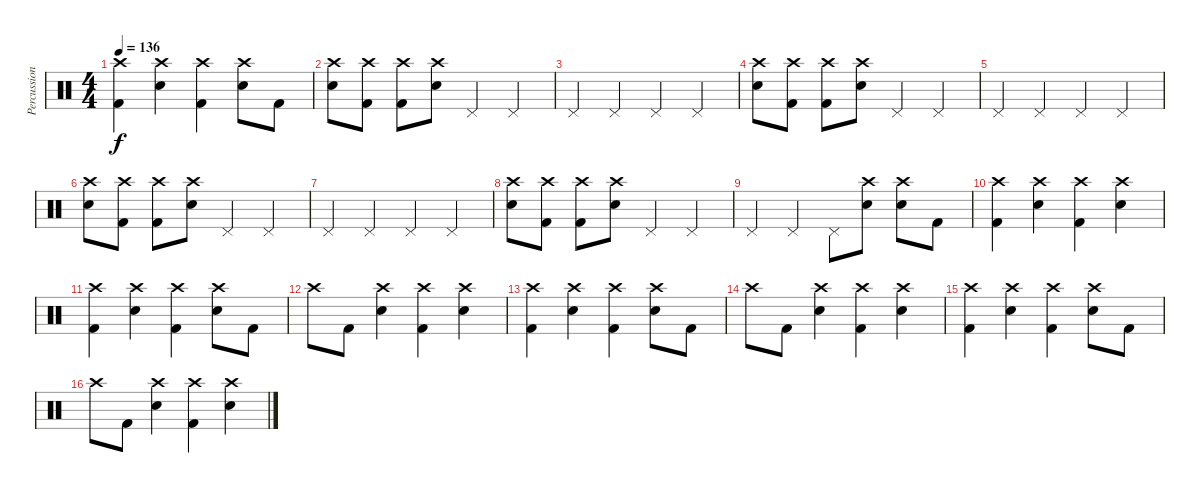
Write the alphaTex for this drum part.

\track ("Percussion" "Percussion") {instrument percussion}
\staff {score}
\articulation defaults
\ts (4 4)
\tempo 136
\clef neutral
\ks c
("Kick (hit) 2" "Crash high (hit)").4{dy f} ("Snare (hit) 2" "Crash high (hit)").4 ("Kick (hit) 2" "Crash high (hit)").4 ("Snare (hit) 2" "Crash high (hit)").8 "Kick (hit) 2".8 |
("Snare (hit) 2" "Crash high (hit)").8 ("Kick (hit) 2" "Crash high (hit)").8 ("Kick (hit) 2" "Crash high (hit)").8 ("Snare (hit) 2" "Crash high (hit)").8 "Pedal Hi-Hat (hit)".4 "Pedal Hi-Hat (hit)".4 |
"Pedal Hi-Hat (hit)".4 "Pedal Hi-Hat (hit)".4 "Pedal Hi-Hat (hit)".4 "Pedal Hi-Hat (hit)".4 |
("Snare (hit) 2" "Crash high (hit)").8 ("Kick (hit) 2" "Crash high (hit)").8 ("Kick (hit) 2" "Crash high (hit)").8 ("Snare (hit) 2" "Crash high (hit)").8 "Pedal Hi-Hat (hit)".4 "Pedal Hi-Hat (hit)".4 |
"Pedal Hi-Hat (hit)".4 "Pedal Hi-Hat (hit)".4 "Pedal Hi-Hat (hit)".4 "Pedal Hi-Hat (hit)".4 |
("Snare (hit) 2" "Crash high (hit)").8 ("Kick (hit) 2" "Crash high (hit)").8 ("Kick (hit) 2" "Crash high (hit)").8 ("Snare (hit) 2" "Crash high (hit)").8 "Pedal Hi-Hat (hit)".4 "Pedal Hi-Hat (hit)".4 |
"Pedal Hi-Hat (hit)".4 "Pedal Hi-Hat (hit)".4 "Pedal Hi-Hat (hit)".4 "Pedal Hi-Hat (hit)".4 |
("Snare (hit) 2" "Crash high (hit)").8 ("Kick (hit) 2" "Crash high (hit)").8 ("Kick (hit) 2" "Crash high (hit)").8 ("Snare (hit) 2" "Crash high (hit)").8 "Pedal Hi-Hat (hit)".4 "Pedal Hi-Hat (hit)".4 |
"Pedal Hi-Hat (hit)".4 "Pedal Hi-Hat (hit)".4 "Pedal Hi-Hat (hit)".8 ("Snare (hit) 2" "Crash high (hit)").8 ("Snare (hit) 2" "Crash high (hit)").8 "Kick (hit) 2".8 |
("Kick (hit) 2" "Crash high (hit)").4 ("Snare (hit) 2" "Crash high (hit)").4 ("Kick (hit) 2" "Crash high (hit)").4 ("Snare (hit) 2" "Crash high (hit)").4 |
("Kick (hit) 2" "Crash high (hit)").4 ("Snare (hit) 2" "Crash high (hit)").4 ("Kick (hit) 2" "Crash high (hit)").4 ("Snare (hit) 2" "Crash high (hit)").8 "Kick (hit) 2".8 |
"Crash high (hit)".8 "Kick (hit) 2".8 ("Snare (hit) 2" "Crash high (hit)").4 ("Kick (hit) 2" "Crash high (hit)").4 ("Snare (hit) 2" "Crash high (hit)").4 |
("Kick (hit) 2" "Crash high (hit)").4 ("Snare (hit) 2" "Crash high (hit)").4 ("Kick (hit) 2" "Crash high (hit)").4 ("Snare (hit) 2" "Crash high (hit)").8 "Kick (hit) 2".8 |
"Crash high (hit)".8 "Kick (hit) 2".8 ("Snare (hit) 2" "Crash high (hit)").4 ("Kick (hit) 2" "Crash high (hit)").4 ("Snare (hit) 2" "Crash high (hit)").4 |
("Kick (hit) 2" "Crash high (hit)").4 ("Snare (hit) 2" "Crash high (hit)").4 ("Kick (hit) 2" "Crash high (hit)").4 ("Snare (hit) 2" "Crash high (hit)").8 "Kick (hit) 2".8 |
"Crash high (hit)".8 "Kick (hit) 2".8 ("Snare (hit) 2" "Crash high (hit)").4 ("Kick (hit) 2" "Crash high (hit)").4 ("Snare (hit) 2" "Crash high (hit)").4
